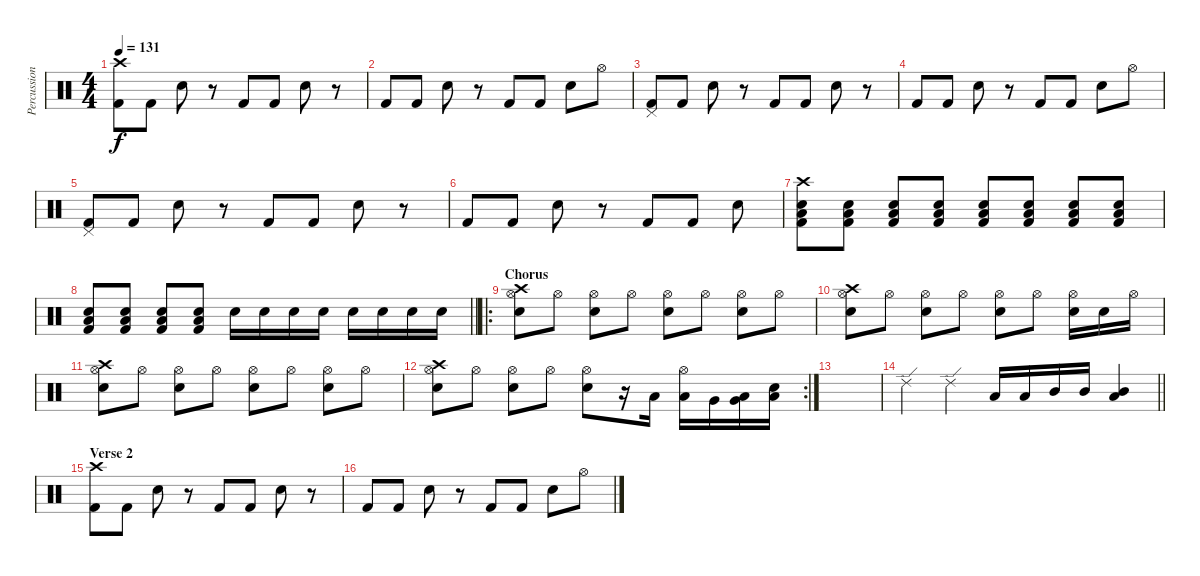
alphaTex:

\track ("Percussion" "Percussion") {instrument percussion}
\staff {score}
\articulation defaults
\ts (4 4)
\tempo 131
\clef neutral
\ks c
("Crash high (hit)" "Kick (hit) 2").8{dy f} "Kick (hit) 2".8 "Electric Snare (hit)".8 r.8 "Kick (hit) 2".8 "Kick (hit) 2".8 "Electric Snare (hit)".8 r.8 |
"Kick (hit) 2".8 "Kick (hit) 2".8 "Electric Snare (hit)".8 r.8 "Kick (hit) 2".8 "Kick (hit) 2".8 "Electric Snare (hit)".8 "Hi-Hat (open)".8 |
("Pedal Hi-Hat (hit)" "Kick (hit) 2").8 "Kick (hit) 2".8 "Electric Snare (hit)".8 r.8 "Kick (hit) 2".8 "Kick (hit) 2".8 "Electric Snare (hit)".8 r.8 |
"Kick (hit) 2".8 "Kick (hit) 2".8 "Electric Snare (hit)".8 r.8 "Kick (hit) 2".8 "Kick (hit) 2".8 "Electric Snare (hit)".8 "Hi-Hat (open)".8 |
("Pedal Hi-Hat (hit)" "Kick (hit) 2").8 "Kick (hit) 2".8 "Electric Snare (hit)".8 r.8 "Kick (hit) 2".8 "Kick (hit) 2".8 "Electric Snare (hit)".8 r.8 |
"Kick (hit) 2".8 "Kick (hit) 2".8 "Electric Snare (hit)".8 r.8 "Kick (hit) 2".8 "Kick (hit) 2".8 "Electric Snare (hit)".8 |
("Crash high (hit)" "Low Floor Tom (hit)" "Electric Snare (hit)" "Kick (hit) 2").8 ("Low Floor Tom (hit)" "Electric Snare (hit)" "Kick (hit) 2").8 ("Low Floor Tom (hit)" "Electric Snare (hit)" "Kick (hit) 2").8 ("Low Floor Tom (hit)" "Electric Snare (hit)" "Kick (hit) 2").8 ("Low Floor Tom (hit)" "Electric Snare (hit)" "Kick (hit) 2").8 ("Low Floor Tom (hit)" "Electric Snare (hit)" "Kick (hit) 2").8 ("Low Floor Tom (hit)" "Electric Snare (hit)" "Kick (hit) 2").8 ("Low Floor Tom (hit)" "Electric Snare (hit)" "Kick (hit) 2").8 |
\barLineRight lightlight
("Low Floor Tom (hit)" "Electric Snare (hit)" "Kick (hit) 2").8 ("Low Floor Tom (hit)" "Electric Snare (hit)" "Kick (hit) 2").8 ("Low Floor Tom (hit)" "Electric Snare (hit)" "Kick (hit) 2").8 ("Low Floor Tom (hit)" "Electric Snare (hit)" "Kick (hit) 2").8 "Electric Snare (hit)".16 "Electric Snare (hit)".16 "Electric Snare (hit)".16 "Electric Snare (hit)".16 "Electric Snare (hit)".16 "Electric Snare (hit)".16 "Electric Snare (hit)".16 "Electric Snare (hit)".16 |
\ro
\section ("" "Chorus")
("Hi-Hat (open)" "Electric Snare (hit)" "Crash high (hit)").8 "Hi-Hat (open)".8 ("Hi-Hat (open)" "Electric Snare (hit)").8 "Hi-Hat (open)".8 ("Hi-Hat (open)" "Electric Snare (hit)").8 "Hi-Hat (open)".8 ("Hi-Hat (open)" "Electric Snare (hit)").8 "Hi-Hat (open)".8 |
("Hi-Hat (open)" "Electric Snare (hit)" "Crash high (hit)").8 "Hi-Hat (open)".8 ("Hi-Hat (open)" "Electric Snare (hit)").8 "Hi-Hat (open)".8 ("Hi-Hat (open)" "Electric Snare (hit)").8 "Hi-Hat (open)".8 ("Hi-Hat (open)" "Electric Snare (hit)").16 "Electric Snare (hit)".16 "Hi-Hat (open)".16 |
("Hi-Hat (open)" "Electric Snare (hit)" "Crash high (hit)").8 "Hi-Hat (open)".8 ("Hi-Hat (open)" "Electric Snare (hit)").8 "Hi-Hat (open)".8 ("Hi-Hat (open)" "Electric Snare (hit)").8 "Hi-Hat (open)".8 ("Hi-Hat (open)" "Electric Snare (hit)").8 "Hi-Hat (open)".8 |
\rc 2
("Hi-Hat (open)" "Electric Snare (hit)" "Crash high (hit)").8 "Hi-Hat (open)".8 ("Hi-Hat (open)" "Electric Snare (hit)").8 "Hi-Hat (open)".8 ("Hi-Hat (open)" "Electric Snare (hit)").8 r.16 "Low Tom (hit)".16 ("Hi-Hat (open)" "Low Tom (hit)").16 "Very Low Tom (hit)".16 ("Very Low Tom (hit)" "Low Floor Tom (hit)").16 ("Electric Snare (hit)" "Low Floor Tom (hit)").16 |
|
\barLineRight lightlight "Ride (edge) 2".4 "Ride (edge) 2".4 "Low Tom (hit)".16 "Low Tom (hit)".16 "Mid Tom (hit)".16 "Mid Tom (hit)".16
("Mid Tom (hit)" "Low Floor Tom (hit)").4 |
\section ("" "Verse 2")
("Crash high (hit)" "Kick (hit) 2").8 "Kick (hit) 2".8 "Electric Snare (hit)".8 r.8 "Kick (hit) 2".8 "Kick (hit) 2".8 "Electric Snare (hit)".8 r.8 |
"Kick (hit) 2".8 "Kick (hit) 2".8 "Electric Snare (hit)".8 r.8 "Kick (hit) 2".8 "Kick (hit) 2".8 "Electric Snare (hit)".8 "Hi-Hat (open)".8
